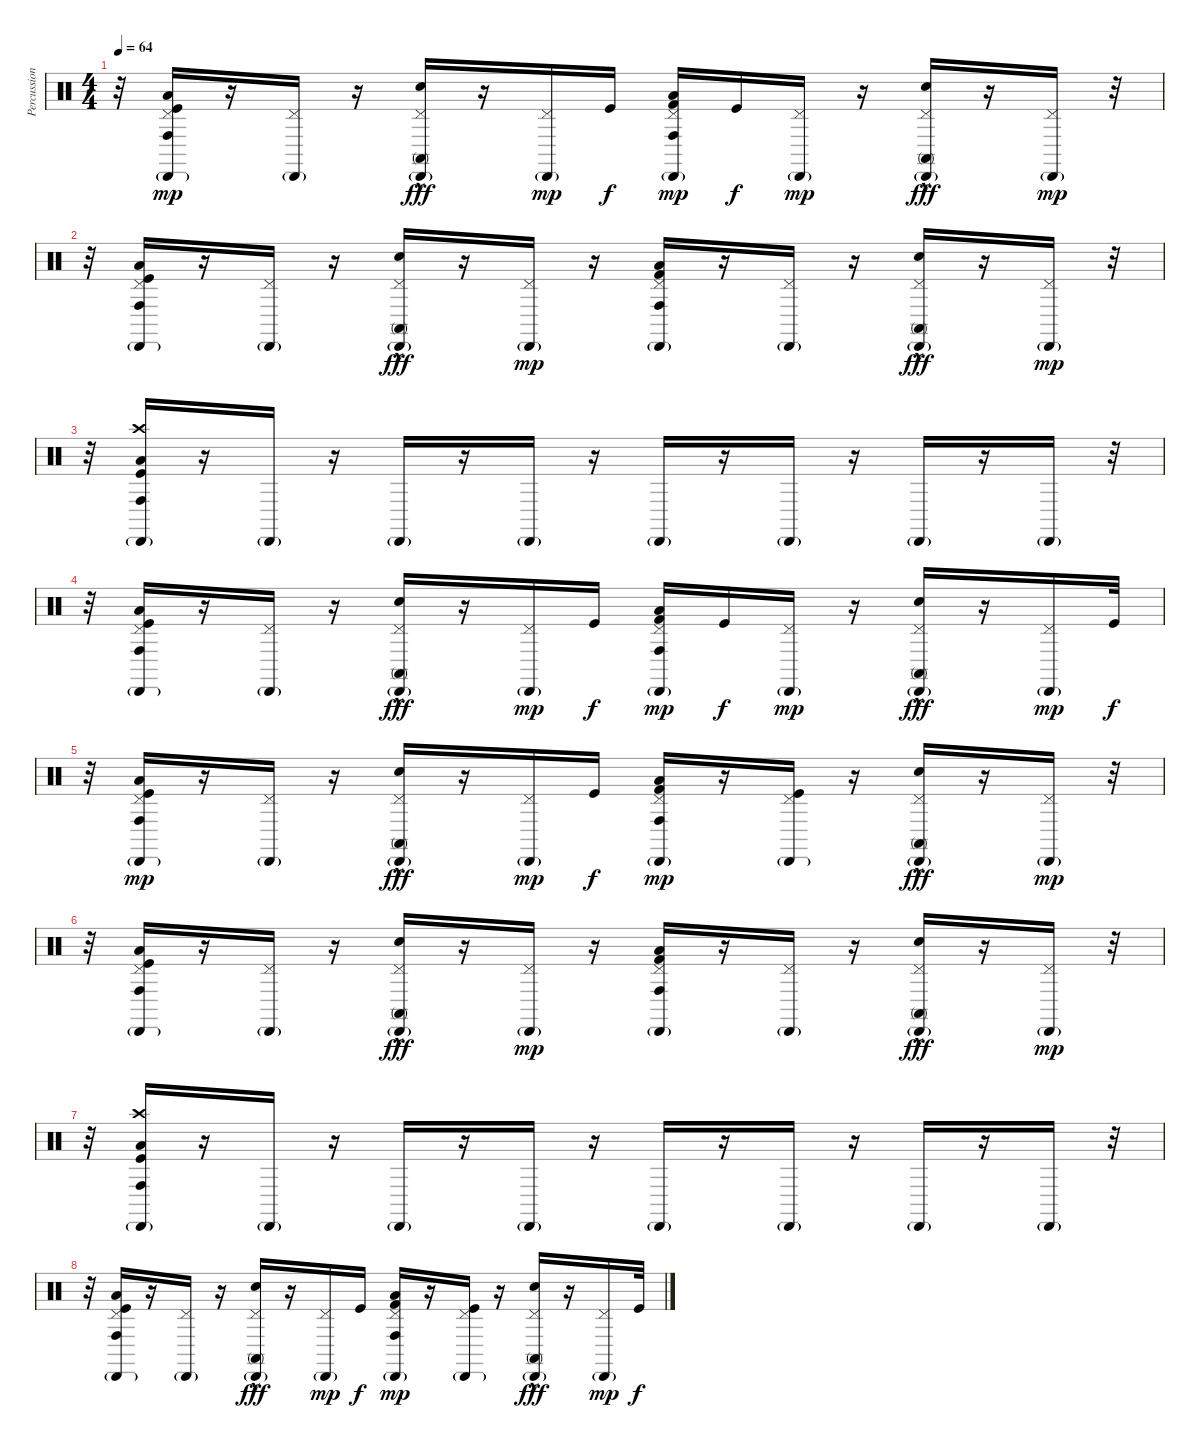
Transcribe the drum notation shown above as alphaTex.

\track ("Percussion" "Percussion") {instrument percussion}
\staff {score}
\articulation defaults
\ts (4 4)
\tempo 64
\clef neutral
\ks c
r.32{dy mp} ("Cabasa (hit)"{g} "Pedal Hi-Hat (hit)" "Low Floor Tom (hit)" "Conga high (hit)" "Kick (hit)").16 r.16 ("Cabasa (hit)"{g} "Pedal Hi-Hat (hit)").16 r.16 ("Cabasa (hit)"{g} "Pedal Hi-Hat (hit)" "Snare (hit) 2"{hac} "Conga high (mute)").16{dy fff} r.16 ("Cabasa (hit)"{g} "Pedal Hi-Hat (hit)").16{dy mp} "Kick (hit)".16{dy f} ("Cabasa (hit)"{g} "Pedal Hi-Hat (hit)" "Low Floor Tom (hit)" "Conga high (hit)" "Kick (hit) 2").16{dy mp} "Kick (hit)".16{dy f} ("Cabasa (hit)"{g} "Pedal Hi-Hat (hit)").16{dy mp} r.16 ("Cabasa (hit)"{g} "Pedal Hi-Hat (hit)" "Snare (hit) 2"{hac} "Conga high (mute)").16{dy fff} r.16 ("Cabasa (hit)"{g} "Pedal Hi-Hat (hit)").16{dy mp} r.32 |
r.32 ("Cabasa (hit)"{g} "Pedal Hi-Hat (hit)" "Low Floor Tom (hit)" "Conga high (hit)" "Kick (hit)").16 r.16 ("Cabasa (hit)"{g} "Pedal Hi-Hat (hit)").16 r.16 ("Cabasa (hit)"{g} "Pedal Hi-Hat (hit)" "Snare (hit) 2"{hac} "Conga high (mute)").16{dy fff} r.16 ("Cabasa (hit)"{g} "Pedal Hi-Hat (hit)").16{dy mp} r.16 ("Cabasa (hit)"{g} "Pedal Hi-Hat (hit)" "Low Floor Tom (hit)" "Conga high (hit)" "Kick (hit) 2").16 r.16 ("Cabasa (hit)"{g} "Pedal Hi-Hat (hit)").16 r.16 ("Cabasa (hit)"{g} "Pedal Hi-Hat (hit)" "Snare (hit) 2"{hac} "Conga high (mute)").16{dy fff} r.16 ("Cabasa (hit)"{g} "Pedal Hi-Hat (hit)").16{dy mp} r.32 |
r.32 ("Cabasa (hit)"{g} "Crash high (hit)" "Low Floor Tom (hit)" "Conga high (hit)" "Kick (hit)").16 r.16 "Cabasa (hit)"{g}.16 r.16 "Cabasa (hit)"{g}.16 r.16 "Cabasa (hit)"{g}.16 r.16 "Cabasa (hit)"{g}.16 r.16 "Cabasa (hit)"{g}.16 r.16 "Cabasa (hit)"{g}.16 r.16 "Cabasa (hit)"{g}.16 r.32 |
r.32 ("Cabasa (hit)"{g} "Pedal Hi-Hat (hit)" "Low Floor Tom (hit)" "Conga high (hit)" "Kick (hit)").16 r.16 ("Cabasa (hit)"{g} "Pedal Hi-Hat (hit)").16 r.16 ("Cabasa (hit)"{g} "Pedal Hi-Hat (hit)" "Snare (hit) 2"{hac} "Conga high (mute)").16{dy fff} r.16 ("Cabasa (hit)"{g} "Pedal Hi-Hat (hit)").16{dy mp} "Kick (hit)".16{dy f} ("Cabasa (hit)"{g} "Pedal Hi-Hat (hit)" "Low Floor Tom (hit)" "Conga high (hit)" "Kick (hit) 2").16{dy mp} "Kick (hit)".16{dy f} ("Cabasa (hit)"{g} "Pedal Hi-Hat (hit)").16{dy mp} r.16 ("Cabasa (hit)"{g} "Pedal Hi-Hat (hit)" "Snare (hit) 2"{hac} "Conga high (mute)").16{dy fff} r.16 ("Cabasa (hit)"{g} "Pedal Hi-Hat (hit)").16{dy mp} "Kick (hit)".32{dy f} |
r.32 ("Cabasa (hit)"{g} "Pedal Hi-Hat (hit)" "Low Floor Tom (hit)" "Conga high (hit)" "Kick (hit)").16{dy mp} r.16 ("Cabasa (hit)"{g} "Pedal Hi-Hat (hit)").16 r.16 ("Cabasa (hit)"{g} "Pedal Hi-Hat (hit)" "Snare (hit) 2"{hac} "Conga high (mute)").16{dy fff} r.16 ("Cabasa (hit)"{g} "Pedal Hi-Hat (hit)").16{dy mp} "Kick (hit)".16{dy f} ("Cabasa (hit)"{g} "Pedal Hi-Hat (hit)" "Low Floor Tom (hit)" "Conga high (hit)" "Kick (hit) 2").16{dy mp} r.16 ("Cabasa (hit)"{g} "Pedal Hi-Hat (hit)" "Kick (hit)").16 r.16 ("Cabasa (hit)"{g} "Pedal Hi-Hat (hit)" "Snare (hit) 2"{hac} "Conga high (mute)").16{dy fff} r.16 ("Cabasa (hit)"{g} "Pedal Hi-Hat (hit)").16{dy mp} r.32 |
r.32 ("Cabasa (hit)"{g} "Pedal Hi-Hat (hit)" "Low Floor Tom (hit)" "Conga high (hit)" "Kick (hit)").16 r.16 ("Cabasa (hit)"{g} "Pedal Hi-Hat (hit)").16 r.16 ("Cabasa (hit)"{g} "Pedal Hi-Hat (hit)" "Snare (hit) 2"{hac} "Conga high (mute)").16{dy fff} r.16 ("Cabasa (hit)"{g} "Pedal Hi-Hat (hit)").16{dy mp} r.16 ("Cabasa (hit)"{g} "Pedal Hi-Hat (hit)" "Low Floor Tom (hit)" "Conga high (hit)" "Kick (hit) 2").16 r.16 ("Cabasa (hit)"{g} "Pedal Hi-Hat (hit)").16 r.16 ("Cabasa (hit)"{g} "Pedal Hi-Hat (hit)" "Snare (hit) 2"{hac} "Conga high (mute)").16{dy fff} r.16 ("Cabasa (hit)"{g} "Pedal Hi-Hat (hit)").16{dy mp} r.32 |
r.32 ("Cabasa (hit)"{g} "Crash high (hit)" "Low Floor Tom (hit)" "Conga high (hit)" "Kick (hit)").16 r.16 "Cabasa (hit)"{g}.16 r.16 "Cabasa (hit)"{g}.16 r.16 "Cabasa (hit)"{g}.16 r.16 "Cabasa (hit)"{g}.16 r.16 "Cabasa (hit)"{g}.16 r.16 "Cabasa (hit)"{g}.16 r.16 "Cabasa (hit)"{g}.16 r.32 |
r.32 ("Cabasa (hit)"{g} "Pedal Hi-Hat (hit)" "Low Floor Tom (hit)" "Conga high (hit)" "Kick (hit)").16 r.16 ("Cabasa (hit)"{g} "Pedal Hi-Hat (hit)").16 r.16 ("Cabasa (hit)"{g} "Pedal Hi-Hat (hit)" "Snare (hit) 2"{hac} "Conga high (mute)").16{dy fff} r.16 ("Cabasa (hit)"{g} "Pedal Hi-Hat (hit)").16{dy mp} "Kick (hit)".16{dy f} ("Cabasa (hit)"{g} "Pedal Hi-Hat (hit)" "Low Floor Tom (hit)" "Conga high (hit)" "Kick (hit) 2").16{dy mp} r.16 ("Cabasa (hit)"{g} "Pedal Hi-Hat (hit)" "Kick (hit)").16 r.16 ("Cabasa (hit)"{g} "Pedal Hi-Hat (hit)" "Snare (hit) 2"{hac} "Conga high (mute)").16{dy fff} r.16 ("Cabasa (hit)"{g} "Pedal Hi-Hat (hit)").16{dy mp} "Kick (hit)".32{dy f}
